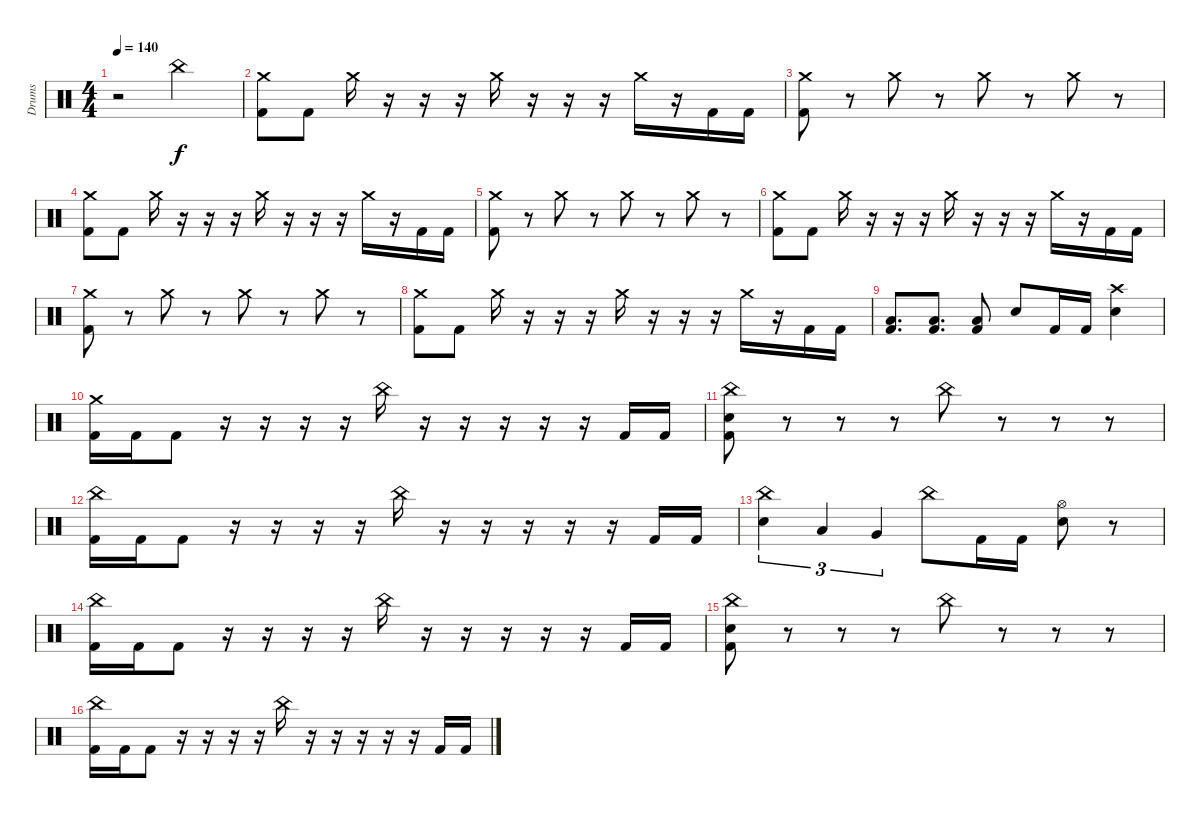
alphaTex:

\track ("Drums" "Drums") {instrument percussion}
\staff {score}
\articulation defaults
\ts (4 4)
\tempo 140
\clef neutral
\ks c
r.2{dy f} "China (hit)".2 |
("Crash medium (hit)" "Kick (hit) 2").8 "Kick (hit) 2".8 "Crash medium (hit)".16 r.16 r.16 r.16 "Crash medium (hit)".16 r.16 r.16 r.16 "Crash medium (hit)".16 r.16 "Kick (hit) 2".16 "Kick (hit) 2".16 |
("Crash medium (hit)" "Kick (hit) 2").8 r.8 "Crash medium (hit)".8 r.8 "Crash medium (hit)".8 r.8 "Crash medium (hit)".8 r.8 |
("Crash medium (hit)" "Kick (hit) 2").8 "Kick (hit) 2".8 "Crash medium (hit)".16 r.16 r.16 r.16 "Crash medium (hit)".16 r.16 r.16 r.16 "Crash medium (hit)".16 r.16 "Kick (hit) 2".16 "Kick (hit) 2".16 |
("Crash medium (hit)" "Kick (hit) 2").8 r.8 "Crash medium (hit)".8 r.8 "Crash medium (hit)".8 r.8 "Crash medium (hit)".8 r.8 |
("Crash medium (hit)" "Kick (hit) 2").8 "Kick (hit) 2".8 "Crash medium (hit)".16 r.16 r.16 r.16 "Crash medium (hit)".16 r.16 r.16 r.16 "Crash medium (hit)".16 r.16 "Kick (hit) 2".16 "Kick (hit) 2".16 |
("Crash medium (hit)" "Kick (hit) 2").8 r.8 "Crash medium (hit)".8 r.8 "Crash medium (hit)".8 r.8 "Crash medium (hit)".8 r.8 |
("Crash medium (hit)" "Kick (hit) 2").8 "Kick (hit) 2".8 "Crash medium (hit)".16 r.16 r.16 r.16 "Crash medium (hit)".16 r.16 r.16 r.16 "Crash medium (hit)".16 r.16 "Kick (hit) 2".16 "Kick (hit) 2".16 |
("Low Tom (hit)" "Kick (hit) 2").8{d} ("Low Tom (hit)" "Kick (hit) 2").8{d} ("Low Tom (hit)" "Kick (hit) 2").8 "Electric Snare (hit)".8 "Kick (hit) 2".16 "Kick (hit) 2".16 ("Crash high (hit)" "Electric Snare (hit)").4 |
("Crash medium (hit)" "Kick (hit) 2").16 "Kick (hit) 2".16 "Kick (hit) 2".8 r.16 r.16 r.16 r.16 "China (hit)".16 r.16 r.16 r.16 r.16 r.16 "Kick (hit) 2".16 "Kick (hit) 2".16 |
("China (hit)" "Electric Snare (hit)" "Kick (hit) 2").8 r.8 r.8 r.8 "China (hit)".8 r.8 r.8 r.8 |
("China (hit)" "Kick (hit) 2").16 "Kick (hit) 2".16 "Kick (hit) 2".8 r.16 r.16 r.16 r.16 "China (hit)".16 r.16 r.16 r.16 r.16 r.16 "Kick (hit) 2".16 "Kick (hit) 2".16 |
("China (hit)" "Electric Snare (hit)").4{tu (3 2)} "Low Tom (hit)".4{tu (3 2)} "Very Low Tom (hit)".4{tu (3 2)} "China (hit)".8 "Kick (hit) 2".16 "Kick (hit) 2".16 ("Hi-Hat (open)" "Electric Snare (hit)").8 r.8 |
("China (hit)" "Kick (hit) 2").16 "Kick (hit) 2".16 "Kick (hit) 2".8 r.16 r.16 r.16 r.16 "China (hit)".16 r.16 r.16 r.16 r.16 r.16 "Kick (hit) 2".16 "Kick (hit) 2".16 |
("China (hit)" "Electric Snare (hit)" "Kick (hit) 2").8 r.8 r.8 r.8 "China (hit)".8 r.8 r.8 r.8 |
("China (hit)" "Kick (hit) 2").16 "Kick (hit) 2".16 "Kick (hit) 2".8 r.16 r.16 r.16 r.16 "China (hit)".16 r.16 r.16 r.16 r.16 r.16 "Kick (hit) 2".16 "Kick (hit) 2".16
